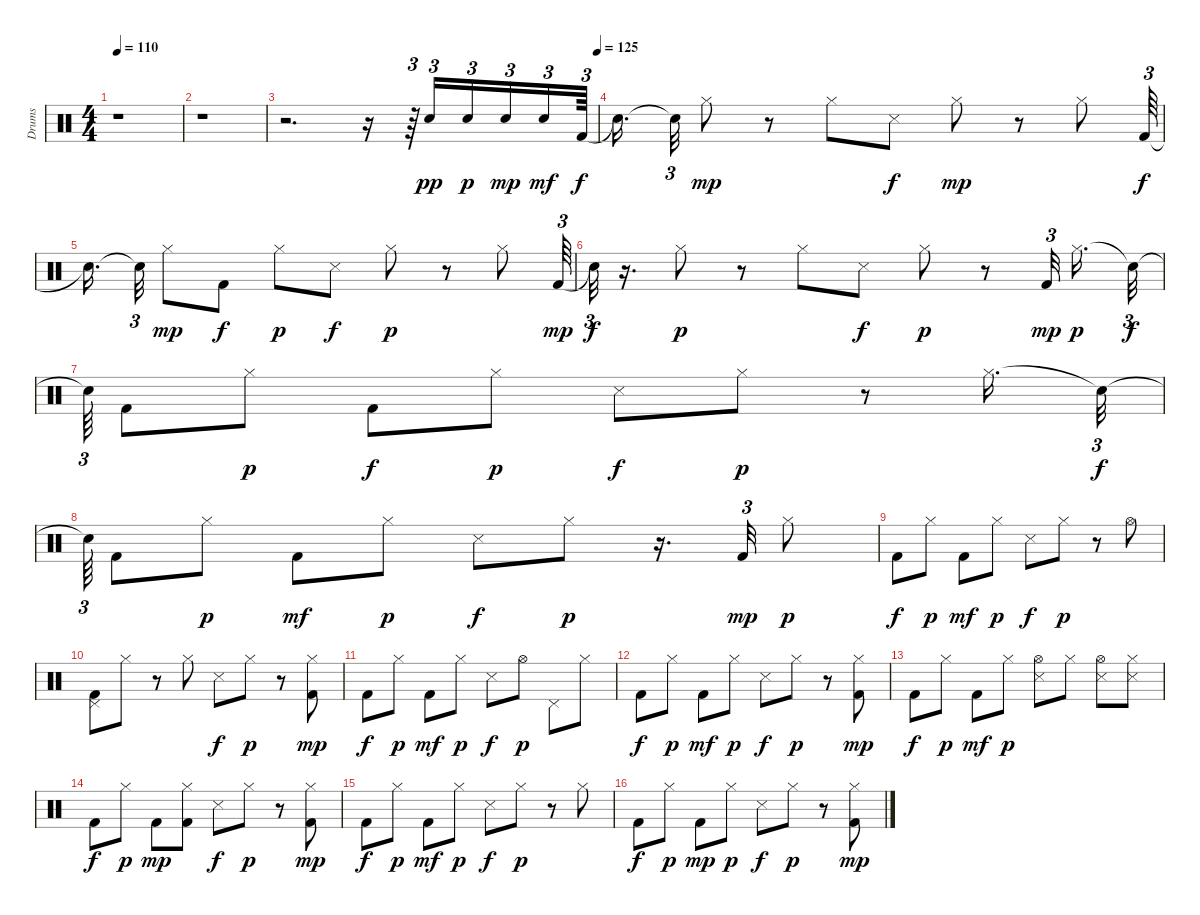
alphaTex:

\track ("Drums" "Drums") {instrument percussion}
\staff {score}
\articulation defaults
\ts (4 4)
\tempo 110
\clef neutral
\ks c
r.1{dy mp} |
r.1 |
\tempo (125 1)
r.2{d} r.16 r.64{tu (3 2)} "Snare (hit) 2".16{tu (3 2) dy pp volume 10} "Snare (hit) 2".16{tu (3 2) dy p} "Snare (hit) 2".16{tu (3 2) dy mp} "Snare (hit) 2".16{tu (3 2) dy mf} "Kick (hit) 2".64{tu (3 2) dy f} |
"Snare (hit)"{t}.16{d} "Snare (hit)"{t}.32{tu (3 2)} "Hi-Hat (closed)".8{dy mp} r.8 "Hi-Hat (closed)".8 "Snare (side stick) 3".8{dy f} "Hi-Hat (closed)".8{dy mp} r.8 "Hi-Hat (closed)".8 "Kick (hit) 2".64{tu (3 2) dy f volume 10} |
"Snare (hit)"{t}.16{d} "Snare (hit)"{t}.32{tu (3 2)} "Hi-Hat (closed)".8{dy mp volume 10} "Kick (hit) 2".8{dy f volume 10} "Hi-Hat (closed)".8{dy p volume 10} "Snare (side stick) 3".8{dy f volume 9} "Hi-Hat (closed)".8{dy p volume 9} r.8 "Hi-Hat (closed)".8{volume 9} "Kick (hit) 2".64{tu (3 2) dy mp volume 8} |
"Snare (hit)"{t}.32{tu (3 2) dy f} r.16{d} "Hi-Hat (closed)".8{dy p volume 8} r.8 "Hi-Hat (closed)".8{volume 8} "Snare (side stick) 3".8{dy f} "Hi-Hat (closed)".8{dy p} r.8 "Kick (hit) 2".32{tu (3 2) dy mp} "Hi-Hat (closed)".16{d dy p} "Snare (hit)"{t}.32{tu (3 2) dy f} |
"Snare (hit)"{t}.64{tu (3 2)} "Kick (hit) 2".8 "Hi-Hat (closed)".8{dy p} "Kick (hit) 2".8{dy f} "Hi-Hat (closed)".8{dy p} "Snare (side stick) 3".8{dy f} "Hi-Hat (closed)".8{dy p} r.8 "Hi-Hat (closed)".16{d} "Snare (hit)"{t}.32{tu (3 2) dy f} |
"Snare (hit)"{t}.64{tu (3 2)} "Kick (hit) 2".8 "Hi-Hat (closed)".8{dy p} "Kick (hit) 2".8{dy mf} "Hi-Hat (closed)".8{dy p} "Snare (side stick) 3".8{dy f} "Hi-Hat (closed)".8{dy p} r.16{d} "Kick (hit) 2".32{tu (3 2) dy mp} "Hi-Hat (closed)".8{dy p} |
"Kick (hit) 2".8{dy f} "Hi-Hat (closed)".8{dy p} "Kick (hit) 2".8{dy mf} "Hi-Hat (closed)".8{dy p} "Snare (side stick) 3".8{dy f} "Hi-Hat (closed)".8{dy p} r.8 "Hi-Hat (open)".8 |
("Kick (hit) 2" "Pedal Hi-Hat (hit)").8 "Hi-Hat (closed)".8 r.8 "Hi-Hat (closed)".8 "Snare (side stick) 3".8{dy f} "Hi-Hat (closed)".8{dy p} r.8 ("Hi-Hat (closed)" "Kick (hit) 2").8{dy mp} |
"Kick (hit) 2".8{dy f} "Hi-Hat (closed)".8{dy p} "Kick (hit) 2".8{dy mf} "Hi-Hat (closed)".8{dy p} "Snare (side stick) 3".8{dy f} "Hi-Hat (open)".8{dy p} "Pedal Hi-Hat (hit)".8 "Hi-Hat (closed)".8 |
"Kick (hit) 2".8{dy f} "Hi-Hat (closed)".8{dy p} "Kick (hit) 2".8{dy mf} "Hi-Hat (closed)".8{dy p} "Snare (side stick) 3".8{dy f} "Hi-Hat (closed)".8{dy p} r.8 ("Hi-Hat (closed)" "Kick (hit) 2").8{dy mp} |
"Kick (hit) 2".8{dy f} "Hi-Hat (closed)".8{dy p} "Kick (hit) 2".8{dy mf} "Hi-Hat (closed)".8{dy p} ("Snare (side stick) 3" "Hi-Hat (open)").8 "Hi-Hat (closed)".8 ("Snare (side stick) 3" "Hi-Hat (open)").8 ("Hi-Hat (closed)" "Snare (side stick) 3").8 |
"Kick (hit) 2".8{dy f} "Hi-Hat (closed)".8{dy p} "Kick (hit) 2".8{dy mp} ("Hi-Hat (closed)" "Kick (hit) 2").8 "Snare (side stick) 3".8{dy f} "Hi-Hat (closed)".8{dy p} r.8 ("Hi-Hat (closed)" "Kick (hit) 2").8{dy mp} |
"Kick (hit) 2".8{dy f} "Hi-Hat (closed)".8{dy p} "Kick (hit) 2".8{dy mf} "Hi-Hat (closed)".8{dy p} "Snare (side stick) 3".8{dy f} "Hi-Hat (closed)".8{dy p} r.8 "Hi-Hat (closed)".8 |
"Kick (hit) 2".8{dy f} "Hi-Hat (closed)".8{dy p} "Kick (hit) 2".8{dy mp} "Hi-Hat (closed)".8{dy p} "Snare (side stick) 3".8{dy f} "Hi-Hat (closed)".8{dy p} r.8 ("Hi-Hat (closed)" "Kick (hit) 2").8{dy mp}
